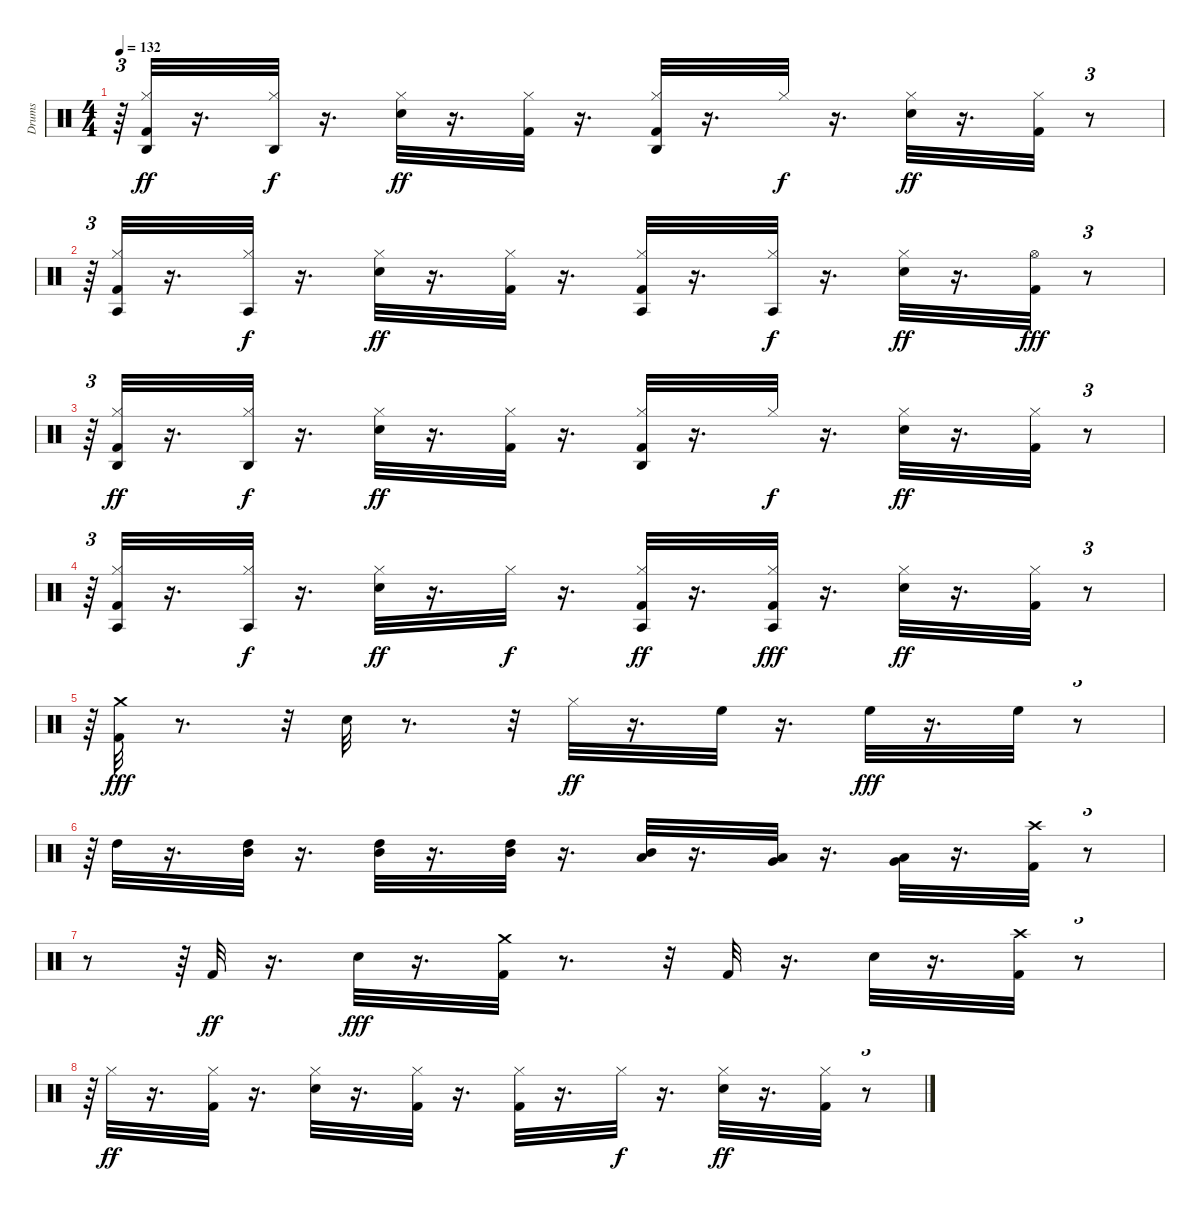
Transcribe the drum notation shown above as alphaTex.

\track ("Drums" "Drums") {instrument percussion}
\staff {score}
\articulation defaults
\ts (4 4)
\tempo 132
\clef neutral
\ks c
r.64{tu (3 2) dy fff} ("Kick (hit) 2" "Hi-Hat (closed)" "Agogo high (hit)").32{dy ff} r.16{d} ("Hi-Hat (closed)" "Agogo high (hit)").32{dy f} r.16{d} ("Snare (hit) 2" "Hi-Hat (closed)").32{dy ff} r.16{d} ("Kick (hit) 2" "Hi-Hat (closed)").32 r.16{d} ("Kick (hit) 2" "Hi-Hat (closed)" "Agogo high (hit)").32 r.16{d} "Hi-Hat (closed)".32{dy f} r.16{d} ("Snare (hit) 2" "Hi-Hat (closed)").32{dy ff} r.16{d} ("Kick (hit) 2" "Hi-Hat (closed)").32 r.8{tu (3 2)} |
r.64{tu (3 2)} ("Kick (hit) 2" "Hi-Hat (closed)" "Agogo tow (hit)").32 r.16{d} ("Hi-Hat (closed)" "Agogo tow (hit)").32{dy f} r.16{d} ("Snare (hit) 2" "Hi-Hat (closed)").32{dy ff} r.16{d} ("Kick (hit) 2" "Hi-Hat (closed)").32 r.16{d} ("Kick (hit) 2" "Hi-Hat (closed)" "Agogo tow (hit)").32 r.16{d} ("Hi-Hat (closed)" "Agogo tow (hit)").32{dy f} r.16{d} ("Snare (hit) 2" "Hi-Hat (closed)").32{dy ff} r.16{d} ("Kick (hit) 2" "Hi-Hat (open)").32{dy fff} r.8{tu (3 2)} |
r.64{tu (3 2)} ("Kick (hit) 2" "Hi-Hat (closed)" "Agogo high (hit)").32{dy ff} r.16{d} ("Hi-Hat (closed)" "Agogo high (hit)").32{dy f} r.16{d} ("Snare (hit) 2" "Hi-Hat (closed)").32{dy ff} r.16{d} ("Kick (hit) 2" "Hi-Hat (closed)").32 r.16{d} ("Kick (hit) 2" "Hi-Hat (closed)" "Agogo high (hit)").32 r.16{d} "Hi-Hat (closed)".32{dy f} r.16{d} ("Snare (hit) 2" "Hi-Hat (closed)").32{dy ff} r.16{d} ("Kick (hit) 2" "Hi-Hat (closed)").32 r.8{tu (3 2)} |
r.64{tu (3 2)} ("Kick (hit) 2" "Hi-Hat (closed)" "Agogo tow (hit)").32 r.16{d} ("Hi-Hat (closed)" "Agogo tow (hit)").32{dy f} r.16{d} ("Snare (hit) 2" "Hi-Hat (closed)").32{dy ff} r.16{d} "Hi-Hat (closed)".32{dy f} r.16{d} ("Kick (hit) 2" "Hi-Hat (closed)" "Agogo tow (hit)").32{dy ff} r.16{d} ("Kick (hit) 2" "Hi-Hat (closed)" "Agogo tow (hit)").32{dy fff} r.16{d} ("Snare (hit) 2" "Hi-Hat (closed)").32{dy ff} r.16{d} ("Kick (hit) 2" "Hi-Hat (closed)").32 r.8{tu (3 2)} |
r.64{tu (3 2)} ("Kick (hit) 2" "Crash medium (hit)").32{dy fff} r.8{d} r.32 "Snare (hit) 2".32 r.8{d} r.32 "Hi-Hat (closed)".32{dy ff} r.16{d} "High Floor Tom (hit)".32 r.16{d} "High Floor Tom (hit)".32{dy fff} r.16{d} "High Floor Tom (hit)".32 r.8{tu (3 2)} |
r.64{tu (3 2)} "High Tom (hit)".32 r.16{d} ("Mid Tom (hit)" "High Tom (hit)").32 r.16{d} ("Mid Tom (hit)" "High Tom (hit)").32 r.16{d} ("Mid Tom (hit)" "High Tom (hit)").32 r.16{d} ("Low Tom (hit)" "Mid Tom (hit)").32 r.16{d} ("Very Low Tom (hit)" "Low Tom (hit)").32 r.16{d} ("Very Low Tom (hit)" "Low Tom (hit)").32 r.16{d} ("Kick (hit) 2" "Crash high (hit)").32 r.8{tu (3 2)} |
r.8 r.64{tu (3 2)} "Kick (hit) 2".32{dy ff} r.16{d} "Snare (hit) 2".32{dy fff} r.16{d} ("Kick (hit) 2" "Crash medium (hit)").32 r.8{d} r.32 "Kick (hit) 2".32 r.16{d} "Snare (hit) 2".32 r.16{d} ("Kick (hit) 2" "Crash high (hit)").32 r.8{tu (3 2)} |
r.64{tu (3 2)} "Hi-Hat (closed)".32{dy ff} r.16{d} ("Kick (hit) 2" "Hi-Hat (closed)").32 r.16{d} ("Snare (hit) 2" "Hi-Hat (closed)").32 r.16{d} ("Kick (hit) 2" "Hi-Hat (closed)").32 r.16{d} ("Kick (hit) 2" "Hi-Hat (closed)").32 r.16{d} "Hi-Hat (closed)".32{dy f} r.16{d} ("Snare (hit) 2" "Hi-Hat (closed)").32{dy ff} r.16{d} ("Kick (hit) 2" "Hi-Hat (closed)").32 r.8{tu (3 2)}
